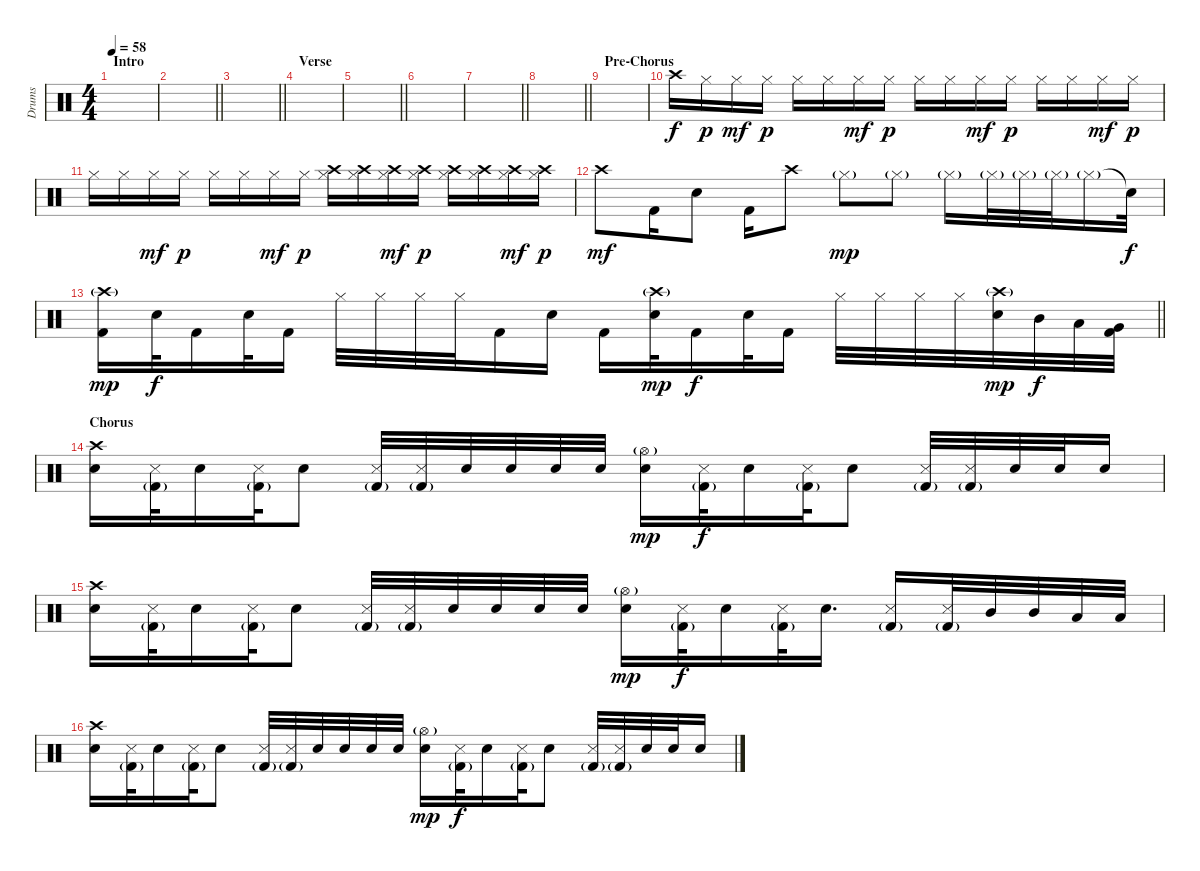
\track ("Drums" "Drums") {instrument percussion}
\staff {score}
\articulation defaults
\ts (4 4)
\section ("" "Intro")
\tempo 58
\clef neutral
\ks c
|
\barLineRight lightlight
|
\barLineRight lightlight
|
\section ("" "Verse")
|
\barLineRight lightlight
|
|
\barLineRight lightlight
|
\barLineRight lightlight
|
\section ("" "Pre-Chorus")
|
"Crash high (hit)".16 "Hi-Hat (closed)".16{dy p} "Hi-Hat (closed)".16{dy mf} "Hi-Hat (closed)".16{dy p} "Hi-Hat (closed)".16 "Hi-Hat (closed)".16 "Hi-Hat (closed)".16{dy mf} "Hi-Hat (closed)".16{dy p} "Hi-Hat (closed)".16 "Hi-Hat (closed)".16 "Hi-Hat (closed)".16{dy mf} "Hi-Hat (closed)".16{dy p} "Hi-Hat (closed)".16 "Hi-Hat (closed)".16 "Hi-Hat (closed)".16{dy mf} "Hi-Hat (closed)".16{dy p} |
"Hi-Hat (closed)".16 "Hi-Hat (closed)".16 "Hi-Hat (closed)".16{dy mf} "Hi-Hat (closed)".16{dy p} "Hi-Hat (closed)".16 "Hi-Hat (closed)".16 "Hi-Hat (closed)".16{dy mf} "Hi-Hat (closed)".16{dy p} ("Crash high (hit)" "Hi-Hat (closed)").16 ("Crash high (hit)" "Hi-Hat (closed)").16 ("Crash high (hit)" "Hi-Hat (closed)").16{dy mf} ("Crash high (hit)" "Hi-Hat (closed)").16{dy p} ("Crash high (hit)" "Hi-Hat (closed)").16 ("Crash high (hit)" "Hi-Hat (closed)").16 ("Crash high (hit)" "Hi-Hat (closed)").16{dy mf} ("Crash high (hit)" "Hi-Hat (closed)").16{dy p} |
"Crash high (hit)".8{dy mf} "Kick (hit) 2".16 "Electric Snare (hit)".8 "Kick (hit) 2".16 "Crash high (hit)".8 "Hi-Hat (closed)"{g}.8{dy mp} "Hi-Hat (closed)"{g}.8 "Hi-Hat (closed)"{g}.16 "Hi-Hat (closed)"{g}.32 "Hi-Hat (closed)"{g}.32 "Hi-Hat (closed)"{g}.32 "Hi-Hat (closed)"{g}.16 "Snare (hit)"{t}.32{dy f} |
\barLineRight lightlight
("Crash high (hit)"{g} "Kick (hit) 2").16{dy mp} "Electric Snare (hit)".32{dy f} "Kick (hit) 2".16 "Electric Snare (hit)".32 "Kick (hit) 2".16 "Hi-Hat (closed)".32 "Hi-Hat (closed)".32 "Hi-Hat (closed)".32 "Hi-Hat (closed)".32 "Kick (hit) 2".16 "Electric Snare (hit)".16 "Kick (hit) 2".16 ("Crash high (hit)"{g} "Electric Snare (hit)").32{dy mp} "Kick (hit) 2".16{dy f} "Electric Snare (hit)".32 "Kick (hit) 2".16 "Hi-Hat (closed)".32 "Hi-Hat (closed)".32 "Hi-Hat (closed)".32 "Hi-Hat (closed)".32 ("Crash high (hit)"{g} "Electric Snare (hit)").32{dy mp} "Mid Tom (hit)".32{dy f} "Low Tom (hit)".32 ("Very Low Tom (hit)" "Kick (hit) 2").32 |
\section ("" "Chorus")
("Crash high (hit)" "Electric Snare (hit)").16 ("Metronome (hit)" "Kick (hit) 2"{g}).32 "Electric Snare (hit)".16 ("Metronome (hit)" "Kick (hit) 2"{g}).32 "Electric Snare (hit)".8 ("Metronome (hit)" "Kick (hit) 2"{g}).32 ("Metronome (hit)" "Kick (hit) 2"{g}).32 "Electric Snare (hit)".32 "Electric Snare (hit)".32 "Electric Snare (hit)".32 "Electric Snare (hit)".32 ("Hi-Hat (open)"{g} "Electric Snare (hit)").16{dy mp} ("Metronome (hit)" "Kick (hit) 2"{g}).32{dy f} "Electric Snare (hit)".16 ("Metronome (hit)" "Kick (hit) 2"{g}).32 "Electric Snare (hit)".8 ("Metronome (hit)" "Kick (hit) 2"{g}).32 ("Metronome (hit)" "Kick (hit) 2"{g}).32 "Electric Snare (hit)".32 "Electric Snare (hit)".32 "Electric Snare (hit)".16 |
("Crash high (hit)" "Electric Snare (hit)").16 ("Metronome (hit)" "Kick (hit) 2"{g}).32 "Electric Snare (hit)".16 ("Metronome (hit)" "Kick (hit) 2"{g}).32 "Electric Snare (hit)".8 ("Metronome (hit)" "Kick (hit) 2"{g}).32 ("Metronome (hit)" "Kick (hit) 2"{g}).32 "Electric Snare (hit)".32 "Electric Snare (hit)".32 "Electric Snare (hit)".32 "Electric Snare (hit)".32 ("Hi-Hat (open)"{g} "Electric Snare (hit)").16{dy mp} ("Metronome (hit)" "Kick (hit) 2"{g}).32{dy f} "Electric Snare (hit)".16 ("Metronome (hit)" "Kick (hit) 2"{g}).32 "Electric Snare (hit)".16{d} ("Metronome (hit)" "Kick (hit) 2"{g}).16 ("Metronome (hit)" "Kick (hit) 2"{g}).32 "Mid Tom (hit)".32 "Mid Tom (hit)".32 "Low Tom (hit)".32 "Low Tom (hit)".32 |
("Crash high (hit)" "Electric Snare (hit)").16 ("Metronome (hit)" "Kick (hit) 2"{g}).32 "Electric Snare (hit)".16 ("Metronome (hit)" "Kick (hit) 2"{g}).32 "Electric Snare (hit)".8 ("Metronome (hit)" "Kick (hit) 2"{g}).32 ("Metronome (hit)" "Kick (hit) 2"{g}).32 "Electric Snare (hit)".32 "Electric Snare (hit)".32 "Electric Snare (hit)".32 "Electric Snare (hit)".32 ("Hi-Hat (open)"{g} "Electric Snare (hit)").16{dy mp} ("Metronome (hit)" "Kick (hit) 2"{g}).32{dy f} "Electric Snare (hit)".16 ("Metronome (hit)" "Kick (hit) 2"{g}).32 "Electric Snare (hit)".8 ("Metronome (hit)" "Kick (hit) 2"{g}).32 ("Metronome (hit)" "Kick (hit) 2"{g}).32 "Electric Snare (hit)".32 "Electric Snare (hit)".32 "Electric Snare (hit)".16
